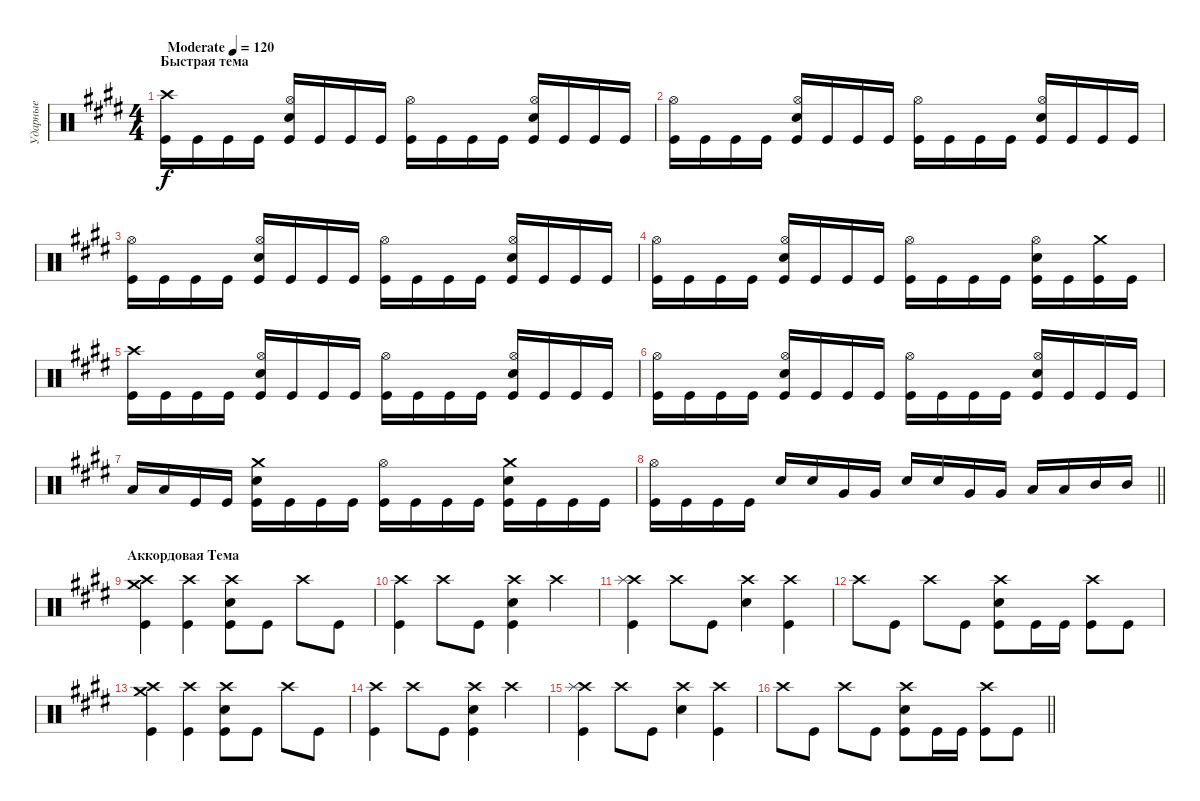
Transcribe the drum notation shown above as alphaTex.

\track ("Ударные" "Ударные") {instrument percussion}
\staff {score}
\articulation defaults
\ts (4 4)
\section ("" "Быстрая тема")
\tempo (120 "Moderate")
\clef neutral
\ks e
("Crash high (hit)" "Kick (hit)").16{dy f} "Kick (hit)".16 "Kick (hit)".16 "Kick (hit)".16 ("Hi-Hat (open)" "Electric Snare (hit)" "Kick (hit)").16 "Kick (hit)".16 "Kick (hit)".16 "Kick (hit)".16 ("Hi-Hat (open)" "Kick (hit)").16 "Kick (hit)".16 "Kick (hit)".16 "Kick (hit)".16 ("Hi-Hat (open)" "Electric Snare (hit)" "Kick (hit)").16 "Kick (hit)".16 "Kick (hit)".16 "Kick (hit)".16 |
("Hi-Hat (open)" "Kick (hit)").16 "Kick (hit)".16 "Kick (hit)".16 "Kick (hit)".16 ("Hi-Hat (open)" "Electric Snare (hit)" "Kick (hit)").16 "Kick (hit)".16 "Kick (hit)".16 "Kick (hit)".16 ("Hi-Hat (open)" "Kick (hit)").16 "Kick (hit)".16 "Kick (hit)".16 "Kick (hit)".16 ("Hi-Hat (open)" "Electric Snare (hit)" "Kick (hit)").16 "Kick (hit)".16 "Kick (hit)".16 "Kick (hit)".16 |
("Hi-Hat (open)" "Kick (hit)").16 "Kick (hit)".16 "Kick (hit)".16 "Kick (hit)".16 ("Hi-Hat (open)" "Electric Snare (hit)" "Kick (hit)").16 "Kick (hit)".16 "Kick (hit)".16 "Kick (hit)".16 ("Hi-Hat (open)" "Kick (hit)").16 "Kick (hit)".16 "Kick (hit)".16 "Kick (hit)".16 ("Hi-Hat (open)" "Electric Snare (hit)" "Kick (hit)").16 "Kick (hit)".16 "Kick (hit)".16 "Kick (hit)".16 |
("Hi-Hat (open)" "Kick (hit)").16 "Kick (hit)".16 "Kick (hit)".16 "Kick (hit)".16 ("Hi-Hat (open)" "Electric Snare (hit)" "Kick (hit)").16 "Kick (hit)".16 "Kick (hit)".16 "Kick (hit)".16 ("Hi-Hat (open)" "Kick (hit)").16 "Kick (hit)".16 "Kick (hit)".16 "Kick (hit)".16 ("Hi-Hat (open)" "Electric Snare (hit)" "Kick (hit)").16 "Kick (hit)".16 ("Crash medium (hit)" "Kick (hit)").16 "Kick (hit)".16 |
("Crash high (hit)" "Kick (hit)").16 "Kick (hit)".16 "Kick (hit)".16 "Kick (hit)".16 ("Hi-Hat (open)" "Electric Snare (hit)" "Kick (hit)").16 "Kick (hit)".16 "Kick (hit)".16 "Kick (hit)".16 ("Hi-Hat (open)" "Kick (hit)").16 "Kick (hit)".16 "Kick (hit)".16 "Kick (hit)".16 ("Hi-Hat (open)" "Electric Snare (hit)" "Kick (hit)").16 "Kick (hit)".16 "Kick (hit)".16 "Kick (hit)".16 |
("Hi-Hat (open)" "Kick (hit)").16 "Kick (hit)".16 "Kick (hit)".16 "Kick (hit)".16 ("Hi-Hat (open)" "Electric Snare (hit)" "Kick (hit)").16 "Kick (hit)".16 "Kick (hit)".16 "Kick (hit)".16 ("Hi-Hat (open)" "Kick (hit)").16 "Kick (hit)".16 "Kick (hit)".16 "Kick (hit)".16 ("Hi-Hat (open)" "Electric Snare (hit)" "Kick (hit)").16 "Kick (hit)".16 "Kick (hit)".16 "Kick (hit)".16 |
"Low Floor Tom (hit)".16 "Low Floor Tom (hit)".16 "Kick (hit)".16 "Kick (hit)".16 ("Crash medium (hit)" "Electric Snare (hit)" "Kick (hit)").16 "Kick (hit)".16 "Kick (hit)".16 "Kick (hit)".16 ("Hi-Hat (open)" "Kick (hit)").16 "Kick (hit)".16 "Kick (hit)".16 "Kick (hit)".16 ("Crash medium (hit)" "Electric Snare (hit)" "Kick (hit)").16 "Kick (hit)".16 "Kick (hit)".16 "Kick (hit)".16 |
\barLineRight lightlight
("Hi-Hat (open)" "Kick (hit)").16 "Kick (hit)".16 "Kick (hit)".16 "Kick (hit)".16 "Electric Snare (hit)".16 "Electric Snare (hit)".16 "Very Low Tom (hit)".16 "Very Low Tom (hit)".16 "Electric Snare (hit)".16 "Electric Snare (hit)".16 "Very Low Tom (hit)".16 "Very Low Tom (hit)".16 "Low Tom (hit)".16 "Low Tom (hit)".16 "Mid Tom (hit)".16 "Mid Tom (hit)".16 |
\section ("" "Аккордовая Тема")
("Crash high (hit)" "Crash medium (hit)" "Kick (hit)").4 ("Crash high (hit)" "Kick (hit)").4 ("Crash high (hit)" "Electric Snare (hit)" "Kick (hit)").8 "Kick (hit)".8 "Crash high (hit)".8 "Kick (hit)".8 |
("Crash high (hit)" "Kick (hit)").4 "Crash high (hit)".8 "Kick (hit)".8 ("Crash high (hit)" "Electric Snare (hit)" "Kick (hit)").4 "Crash high (hit)".4 |
("Crash high (hit)" "Splash (hit)" "Kick (hit)").4 "Crash high (hit)".8 "Kick (hit)".8 ("Crash high (hit)" "Electric Snare (hit)").4 ("Crash high (hit)" "Kick (hit)").4 |
"Crash high (hit)".8 "Kick (hit)".8 "Crash high (hit)".8 "Kick (hit)".8 ("Crash high (hit)" "Electric Snare (hit)" "Kick (hit)").8 "Kick (hit)".16 "Kick (hit)".16 ("Crash high (hit)" "Kick (hit)").8 "Kick (hit)".8 |
("Crash high (hit)" "Crash medium (hit)" "Kick (hit)").4 ("Crash high (hit)" "Kick (hit)").4 ("Crash high (hit)" "Electric Snare (hit)" "Kick (hit)").8 "Kick (hit)".8 "Crash high (hit)".8 "Kick (hit)".8 |
("Crash high (hit)" "Kick (hit)").4 "Crash high (hit)".8 "Kick (hit)".8 ("Crash high (hit)" "Electric Snare (hit)" "Kick (hit)").4 "Crash high (hit)".4 |
("Crash high (hit)" "Splash (hit)" "Kick (hit)").4 "Crash high (hit)".8 "Kick (hit)".8 ("Crash high (hit)" "Electric Snare (hit)").4 ("Crash high (hit)" "Kick (hit)").4 |
\barLineRight lightlight "Crash high (hit)".8 "Kick (hit)".8 "Crash high (hit)".8 "Kick (hit)".8
("Crash high (hit)" "Electric Snare (hit)" "Kick (hit)").8 "Kick (hit)".16 "Kick (hit)".16 ("Crash high (hit)" "Kick (hit)").8 "Kick (hit)".8
